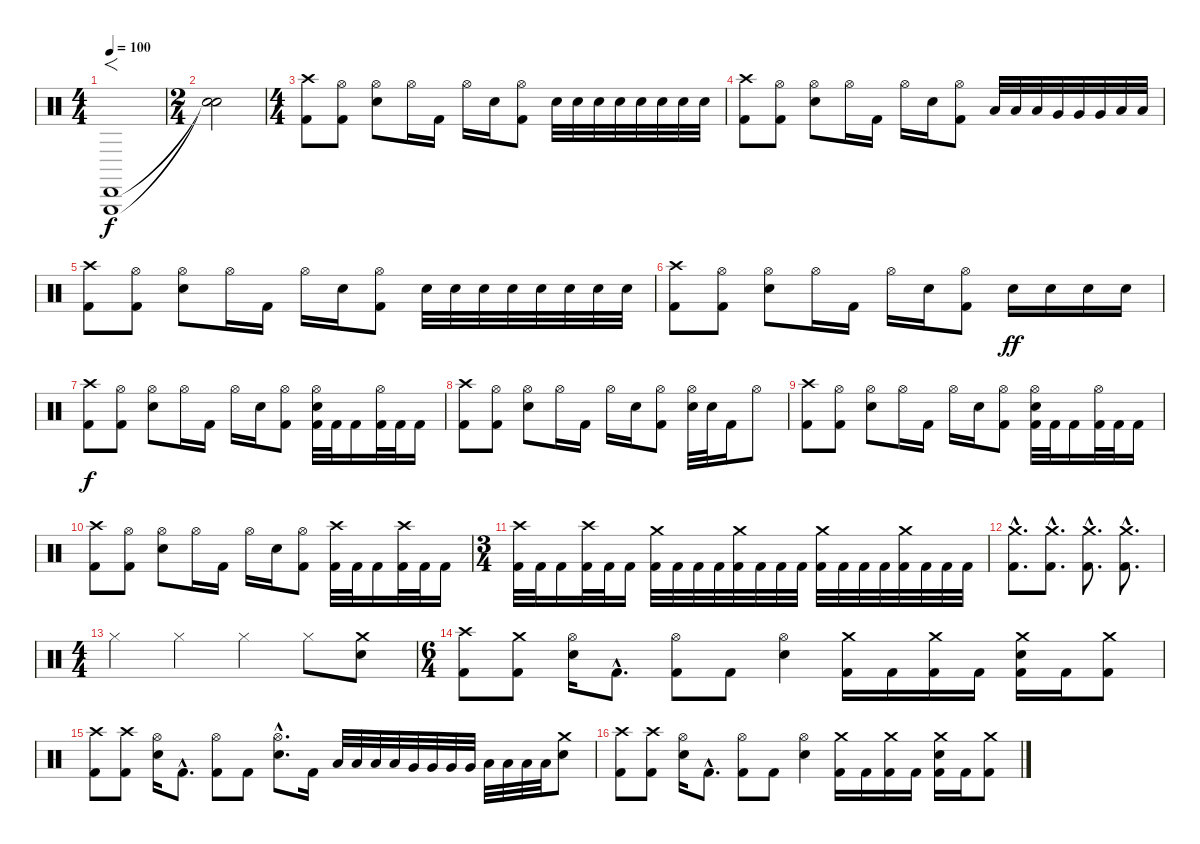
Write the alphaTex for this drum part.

\track "" {instrument percussion}
\staff {score}
\articulation defaults
\ts (4 4)
\tempo 100
\clef neutral
\ks c
("Triangle (hit)" "Cabasa (hit)").1{f dy f} |
\ts (2 4)
("Snare (hit)"{t} "Snare (hit)"{t}).2 |
\ts (4 4)
("Crash high (hit)" "Kick (hit) 2").8 ("Hi-Hat (open)" "Kick (hit) 2").8 ("Hi-Hat (open)" "Electric Snare (hit)").8 "Hi-Hat (open)".16 "Kick (hit) 2".16 "Hi-Hat (open)".16 "Electric Snare (hit)".16 ("Hi-Hat (open)" "Kick (hit) 2").8 "Electric Snare (hit)".32 "Electric Snare (hit)".32 "Electric Snare (hit)".32 "Electric Snare (hit)".32 "Electric Snare (hit)".32 "Electric Snare (hit)".32 "Electric Snare (hit)".32 "Electric Snare (hit)".32 |
("Crash high (hit)" "Kick (hit) 2").8 ("Hi-Hat (open)" "Kick (hit) 2").8 ("Hi-Hat (open)" "Electric Snare (hit)").8 "Hi-Hat (open)".16 "Kick (hit) 2".16 "Hi-Hat (open)".16 "Electric Snare (hit)".16 ("Hi-Hat (open)" "Kick (hit) 2").8 "Low Tom (hit)".32 "Low Tom (hit)".32 "Low Tom (hit)".32 "Very Low Tom (hit)".32 "Very Low Tom (hit)".32 "Very Low Tom (hit)".32 "Low Floor Tom (hit)".32 "Low Floor Tom (hit)".32 |
("Crash high (hit)" "Kick (hit) 2").8 ("Hi-Hat (open)" "Kick (hit) 2").8 ("Hi-Hat (open)" "Electric Snare (hit)").8 "Hi-Hat (open)".16 "Kick (hit) 2".16 "Hi-Hat (open)".16 "Electric Snare (hit)".16 ("Hi-Hat (open)" "Kick (hit) 2").8 "Electric Snare (hit)".32 "Electric Snare (hit)".32 "Electric Snare (hit)".32 "Electric Snare (hit)".32 "Electric Snare (hit)".32 "Electric Snare (hit)".32 "Electric Snare (hit)".32 "Electric Snare (hit)".32 |
("Crash high (hit)" "Kick (hit) 2").8 ("Hi-Hat (open)" "Kick (hit) 2").8 ("Hi-Hat (open)" "Electric Snare (hit)").8 "Hi-Hat (open)".16 "Kick (hit) 2".16 "Hi-Hat (open)".16 "Electric Snare (hit)".16 ("Hi-Hat (open)" "Kick (hit) 2").8 "Electric Snare (hit)".16{dy ff} "Electric Snare (hit)".16 "Electric Snare (hit)".16 "Electric Snare (hit)".16 |
("Crash high (hit)" "Kick (hit) 2").8{dy f} ("Hi-Hat (open)" "Kick (hit) 2").8 ("Hi-Hat (open)" "Electric Snare (hit)").8 "Hi-Hat (open)".16 "Kick (hit) 2".16 "Hi-Hat (open)".16 "Electric Snare (hit)".16 ("Hi-Hat (open)" "Kick (hit) 2").8 ("Hi-Hat (open)" "Electric Snare (hit)" "Kick (hit) 2").32 "Kick (hit) 2".32 "Kick (hit) 2".16 ("Hi-Hat (open)" "Kick (hit) 2").32 "Kick (hit) 2".32 "Kick (hit) 2".16 |
("Crash high (hit)" "Kick (hit) 2").8 ("Hi-Hat (open)" "Kick (hit) 2").8 ("Hi-Hat (open)" "Electric Snare (hit)").8 "Hi-Hat (open)".16 "Kick (hit) 2".16 "Hi-Hat (open)".16 "Electric Snare (hit)".16 ("Hi-Hat (open)" "Kick (hit) 2").8 ("Hi-Hat (open)" "Electric Snare (hit)").32 "Electric Snare (hit)".32 "Kick (hit) 2".16 "Hi-Hat (open)".8 |
("Crash high (hit)" "Kick (hit) 2").8 ("Hi-Hat (open)" "Kick (hit) 2").8 ("Hi-Hat (open)" "Electric Snare (hit)").8 "Hi-Hat (open)".16 "Kick (hit) 2".16 "Hi-Hat (open)".16 "Electric Snare (hit)".16 ("Hi-Hat (open)" "Kick (hit) 2").8 ("Hi-Hat (open)" "Electric Snare (hit)" "Kick (hit) 2").32 "Kick (hit) 2".32 "Kick (hit) 2".16 ("Hi-Hat (open)" "Kick (hit) 2").32 "Kick (hit) 2".32 "Kick (hit) 2".16 |
("Crash high (hit)" "Kick (hit) 2").8 ("Hi-Hat (open)" "Kick (hit) 2").8 ("Hi-Hat (open)" "Electric Snare (hit)").8 "Hi-Hat (open)".16 "Kick (hit) 2".16 "Hi-Hat (open)".16 "Electric Snare (hit)".16 ("Hi-Hat (open)" "Kick (hit) 2").8 ("Crash high (hit)" "Kick (hit) 2").32 "Kick (hit) 2".32 "Kick (hit) 2".16 ("Crash high (hit)" "Kick (hit) 2").32 "Kick (hit) 2".32 "Kick (hit) 2".16 |
\ts (3 4)
("Crash high (hit)" "Kick (hit) 2").32 "Kick (hit) 2".32 "Kick (hit) 2".16 ("Crash high (hit)" "Kick (hit) 2").32 "Kick (hit) 2".32 "Kick (hit) 2".16 ("Crash medium (hit)" "Kick (hit) 2").32 "Kick (hit) 2".32 "Kick (hit) 2".32 "Kick (hit) 2".32 ("Crash medium (hit)" "Kick (hit) 2").32 "Kick (hit) 2".32 "Kick (hit) 2".32 "Kick (hit) 2".32 ("Crash medium (hit)" "Kick (hit) 2").32 "Kick (hit) 2".32 "Kick (hit) 2".32 "Kick (hit) 2".32 ("Crash medium (hit)" "Kick (hit) 2").32 "Kick (hit) 2".32 "Kick (hit) 2".32 "Kick (hit) 2".32 |
("Crash medium (hit)"{hac} "Kick (hit) 2"{hac}).8{d} ("Crash medium (hit)"{hac} "Kick (hit) 2"{hac}).8{d} ("Crash medium (hit)"{hac} "Kick (hit) 2"{hac}).8{d} ("Crash medium (hit)"{hac} "Kick (hit) 2"{hac}).8{d} |
\ts (4 4)
"Hi-Hat (closed)".4 "Hi-Hat (closed)".4 "Hi-Hat (closed)".4 "Hi-Hat (closed)".8 ("Crash medium (hit)" "Electric Snare (hit)").8 |
\ts (6 4)
("Crash high (hit)" "Kick (hit) 2").8 ("Crash medium (hit)" "Kick (hit) 2").8 ("Hi-Hat (open)" "Electric Snare (hit)").16 "Kick (hit) 2"{hac}.8{d} ("Hi-Hat (open)" "Kick (hit) 2").8 "Kick (hit) 2".8 ("Hi-Hat (open)" "Electric Snare (hit)").4 ("Crash medium (hit)" "Kick (hit) 2").16 "Kick (hit) 2".16 ("Crash medium (hit)" "Kick (hit) 2").16 "Kick (hit) 2".16 ("Crash medium (hit)" "Electric Snare (hit)" "Kick (hit) 2").16 "Kick (hit) 2".16 ("Crash medium (hit)" "Kick (hit) 2").8 |
("Crash high (hit)" "Kick (hit) 2").8 ("Crash high (hit)" "Kick (hit) 2").8 ("Hi-Hat (open)" "Electric Snare (hit)").16 "Kick (hit) 2"{hac}.8{d} ("Hi-Hat (open)" "Kick (hit) 2").8 "Kick (hit) 2".8 ("Hi-Hat (open)"{hac} "Electric Snare (hit)"{hac}).8{d} "Kick (hit) 2".16 "Low Tom (hit)".32 "Low Tom (hit)".32 "Low Tom (hit)".32 "Low Tom (hit)".32 "Very Low Tom (hit)".32 "Very Low Tom (hit)".32 "Very Low Tom (hit)".32 "Very Low Tom (hit)".32 "Low Floor Tom (hit)".32 "Low Floor Tom (hit)".32 "Low Floor Tom (hit)".32 "Low Floor Tom (hit)".32 ("Crash medium (hit)" "Electric Snare (hit)").8 |
("Crash high (hit)" "Kick (hit) 2").8 ("Crash high (hit)" "Kick (hit) 2").8 ("Hi-Hat (open)" "Electric Snare (hit)").16 "Kick (hit) 2"{hac}.8{d} ("Hi-Hat (open)" "Kick (hit) 2").8 "Kick (hit) 2".8 ("Hi-Hat (open)" "Electric Snare (hit)").4 ("Crash medium (hit)" "Kick (hit) 2").16 "Kick (hit) 2".16 ("Crash medium (hit)" "Kick (hit) 2").16 "Kick (hit) 2".16 ("Crash medium (hit)" "Electric Snare (hit)" "Kick (hit) 2").16 "Kick (hit) 2".16 ("Crash medium (hit)" "Kick (hit) 2").8
